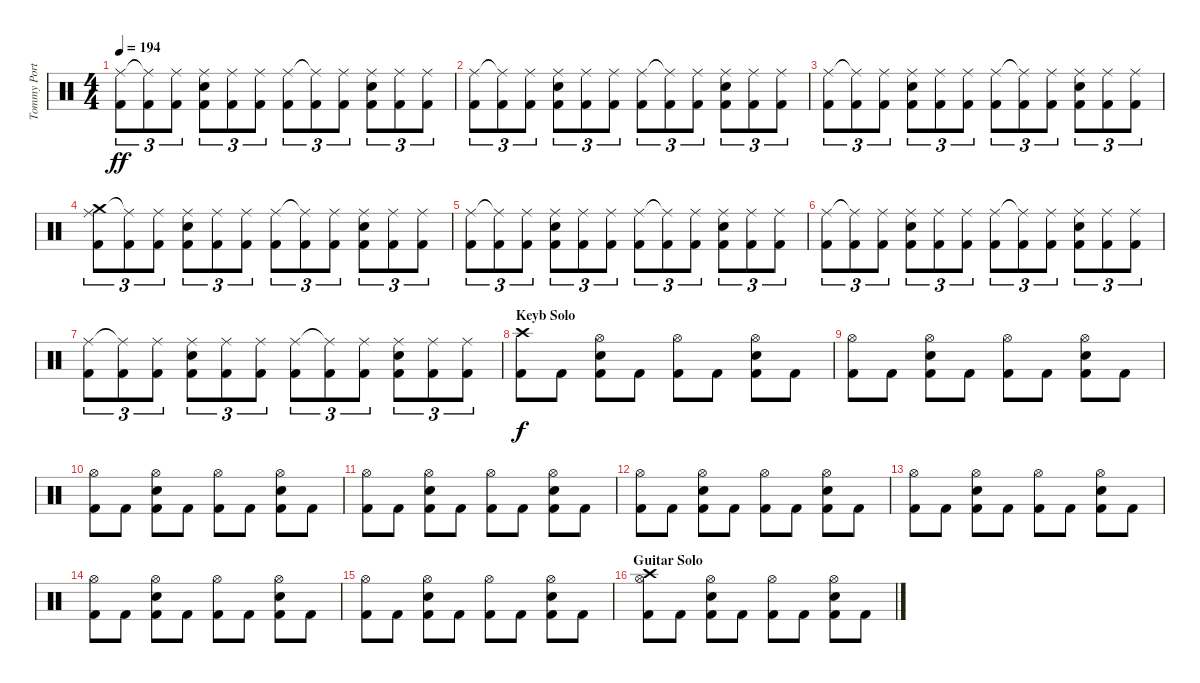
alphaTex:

\track ("Tommy Portino" "Tommy Port") {instrument percussion}
\staff {score}
\articulation defaults
\ts (4 4)
\tempo 194
\clef neutral
\ks c
("Ride (middle)" "Kick (hit) 2").8{tu (3 2) dy ff} ("Ride (middle)"{t} "Kick (hit) 2").8{tu (3 2)} ("Ride (middle)" "Kick (hit) 2").8{tu (3 2)} ("Ride (middle)" "Snare (hit) 2" "Kick (hit) 2").8{tu (3 2)} ("Ride (middle)" "Kick (hit) 2").8{tu (3 2)} ("Ride (middle)" "Kick (hit) 2").8{tu (3 2)} ("Ride (middle)" "Kick (hit) 2").8{tu (3 2)} ("Ride (middle)"{t} "Kick (hit) 2").8{tu (3 2)} ("Ride (middle)" "Kick (hit) 2").8{tu (3 2)} ("Ride (middle)" "Snare (hit) 2" "Kick (hit) 2").8{tu (3 2)} ("Ride (middle)" "Kick (hit) 2").8{tu (3 2)} ("Ride (middle)" "Kick (hit) 2").8{tu (3 2)} |
("Ride (middle)" "Kick (hit) 2").8{tu (3 2)} ("Ride (middle)"{t} "Kick (hit) 2").8{tu (3 2)} ("Ride (middle)" "Kick (hit) 2").8{tu (3 2)} ("Ride (middle)" "Snare (hit) 2" "Kick (hit) 2").8{tu (3 2)} ("Ride (middle)" "Kick (hit) 2").8{tu (3 2)} ("Ride (middle)" "Kick (hit) 2").8{tu (3 2)} ("Ride (middle)" "Kick (hit) 2").8{tu (3 2)} ("Ride (middle)"{t} "Kick (hit) 2").8{tu (3 2)} ("Ride (middle)" "Kick (hit) 2").8{tu (3 2)} ("Ride (middle)" "Snare (hit) 2" "Kick (hit) 2").8{tu (3 2)} ("Ride (middle)" "Kick (hit) 2").8{tu (3 2)} ("Ride (middle)" "Kick (hit) 2").8{tu (3 2)} |
("Ride (middle)" "Kick (hit) 2").8{tu (3 2)} ("Ride (middle)"{t} "Kick (hit) 2").8{tu (3 2)} ("Ride (middle)" "Kick (hit) 2").8{tu (3 2)} ("Ride (middle)" "Snare (hit) 2" "Kick (hit) 2").8{tu (3 2)} ("Ride (middle)" "Kick (hit) 2").8{tu (3 2)} ("Ride (middle)" "Kick (hit) 2").8{tu (3 2)} ("Ride (middle)" "Kick (hit) 2").8{tu (3 2)} ("Ride (middle)"{t} "Kick (hit) 2").8{tu (3 2)} ("Ride (middle)" "Kick (hit) 2").8{tu (3 2)} ("Ride (middle)" "Snare (hit) 2" "Kick (hit) 2").8{tu (3 2)} ("Ride (middle)" "Kick (hit) 2").8{tu (3 2)} ("Ride (middle)" "Kick (hit) 2").8{tu (3 2)} |
("Crash medium (hit)" "Ride (middle)" "Kick (hit) 2").8{tu (3 2)} ("Ride (middle)"{t} "Kick (hit) 2").8{tu (3 2)} ("Ride (middle)" "Kick (hit) 2").8{tu (3 2)} ("Ride (middle)" "Snare (hit) 2" "Kick (hit) 2").8{tu (3 2)} ("Ride (middle)" "Kick (hit) 2").8{tu (3 2)} ("Ride (middle)" "Kick (hit) 2").8{tu (3 2)} ("Ride (middle)" "Kick (hit) 2").8{tu (3 2)} ("Ride (middle)"{t} "Kick (hit) 2").8{tu (3 2)} ("Ride (middle)" "Kick (hit) 2").8{tu (3 2)} ("Ride (middle)" "Snare (hit) 2" "Kick (hit) 2").8{tu (3 2)} ("Ride (middle)" "Kick (hit) 2").8{tu (3 2)} ("Ride (middle)" "Kick (hit) 2").8{tu (3 2)} |
("Ride (middle)" "Kick (hit) 2").8{tu (3 2)} ("Ride (middle)"{t} "Kick (hit) 2").8{tu (3 2)} ("Ride (middle)" "Kick (hit) 2").8{tu (3 2)} ("Ride (middle)" "Snare (hit) 2" "Kick (hit) 2").8{tu (3 2)} ("Ride (middle)" "Kick (hit) 2").8{tu (3 2)} ("Ride (middle)" "Kick (hit) 2").8{tu (3 2)} ("Ride (middle)" "Kick (hit) 2").8{tu (3 2)} ("Ride (middle)"{t} "Kick (hit) 2").8{tu (3 2)} ("Ride (middle)" "Kick (hit) 2").8{tu (3 2)} ("Ride (middle)" "Snare (hit) 2" "Kick (hit) 2").8{tu (3 2)} ("Ride (middle)" "Kick (hit) 2").8{tu (3 2)} ("Ride (middle)" "Kick (hit) 2").8{tu (3 2)} |
("Ride (middle)" "Kick (hit) 2").8{tu (3 2)} ("Ride (middle)"{t} "Kick (hit) 2").8{tu (3 2)} ("Ride (middle)" "Kick (hit) 2").8{tu (3 2)} ("Ride (middle)" "Snare (hit) 2" "Kick (hit) 2").8{tu (3 2)} ("Ride (middle)" "Kick (hit) 2").8{tu (3 2)} ("Ride (middle)" "Kick (hit) 2").8{tu (3 2)} ("Ride (middle)" "Kick (hit) 2").8{tu (3 2)} ("Ride (middle)"{t} "Kick (hit) 2").8{tu (3 2)} ("Ride (middle)" "Kick (hit) 2").8{tu (3 2)} ("Ride (middle)" "Snare (hit) 2" "Kick (hit) 2").8{tu (3 2)} ("Ride (middle)" "Kick (hit) 2").8{tu (3 2)} ("Ride (middle)" "Kick (hit) 2").8{tu (3 2)} |
("Ride (middle)" "Kick (hit) 2").8{tu (3 2)} ("Ride (middle)"{t} "Kick (hit) 2").8{tu (3 2)} ("Ride (middle)" "Kick (hit) 2").8{tu (3 2)} ("Ride (middle)" "Snare (hit) 2" "Kick (hit) 2").8{tu (3 2)} ("Ride (middle)" "Kick (hit) 2").8{tu (3 2)} ("Ride (middle)" "Kick (hit) 2").8{tu (3 2)} ("Ride (middle)" "Kick (hit) 2").8{tu (3 2)} ("Ride (middle)"{t} "Kick (hit) 2").8{tu (3 2)} ("Ride (middle)" "Kick (hit) 2").8{tu (3 2)} ("Ride (middle)" "Snare (hit) 2" "Kick (hit) 2").8{tu (3 2)} ("Ride (middle)" "Kick (hit) 2").8{tu (3 2)} ("Ride (middle)" "Kick (hit) 2").8{tu (3 2)} |
\section ("" "Keyb Solo")
("Crash high (hit)" "Kick (hit) 2").8{dy f} "Kick (hit) 2".8 ("Hi-Hat (open)" "Snare (hit) 2" "Kick (hit) 2").8 "Kick (hit) 2".8 ("Hi-Hat (open)" "Kick (hit) 2").8 "Kick (hit) 2".8 ("Hi-Hat (open)" "Snare (hit) 2" "Kick (hit) 2").8 "Kick (hit) 2".8 |
("Hi-Hat (open)" "Kick (hit) 2").8 "Kick (hit) 2".8 ("Hi-Hat (open)" "Snare (hit) 2" "Kick (hit) 2").8 "Kick (hit) 2".8 ("Hi-Hat (open)" "Kick (hit) 2").8 "Kick (hit) 2".8 ("Hi-Hat (open)" "Snare (hit) 2" "Kick (hit) 2").8 "Kick (hit) 2".8 |
("Hi-Hat (open)" "Kick (hit) 2").8 "Kick (hit) 2".8 ("Hi-Hat (open)" "Snare (hit) 2" "Kick (hit) 2").8 "Kick (hit) 2".8 ("Hi-Hat (open)" "Kick (hit) 2").8 "Kick (hit) 2".8 ("Hi-Hat (open)" "Snare (hit) 2" "Kick (hit) 2").8 "Kick (hit) 2".8 |
("Hi-Hat (open)" "Kick (hit) 2").8 "Kick (hit) 2".8 ("Hi-Hat (open)" "Snare (hit) 2" "Kick (hit) 2").8 "Kick (hit) 2".8 ("Hi-Hat (open)" "Kick (hit) 2").8 "Kick (hit) 2".8 ("Hi-Hat (open)" "Snare (hit) 2" "Kick (hit) 2").8 "Kick (hit) 2".8 |
("Hi-Hat (open)" "Kick (hit) 2").8 "Kick (hit) 2".8 ("Hi-Hat (open)" "Snare (hit) 2" "Kick (hit) 2").8 "Kick (hit) 2".8 ("Hi-Hat (open)" "Kick (hit) 2").8 "Kick (hit) 2".8 ("Hi-Hat (open)" "Snare (hit) 2" "Kick (hit) 2").8 "Kick (hit) 2".8 |
("Hi-Hat (open)" "Kick (hit) 2").8 "Kick (hit) 2".8 ("Hi-Hat (open)" "Snare (hit) 2" "Kick (hit) 2").8 "Kick (hit) 2".8 ("Hi-Hat (open)" "Kick (hit) 2").8 "Kick (hit) 2".8 ("Hi-Hat (open)" "Snare (hit) 2" "Kick (hit) 2").8 "Kick (hit) 2".8 |
("Hi-Hat (open)" "Kick (hit) 2").8 "Kick (hit) 2".8 ("Hi-Hat (open)" "Snare (hit) 2" "Kick (hit) 2").8 "Kick (hit) 2".8 ("Hi-Hat (open)" "Kick (hit) 2").8 "Kick (hit) 2".8 ("Hi-Hat (open)" "Snare (hit) 2" "Kick (hit) 2").8 "Kick (hit) 2".8 |
("Hi-Hat (open)" "Kick (hit) 2").8 "Kick (hit) 2".8 ("Hi-Hat (open)" "Snare (hit) 2" "Kick (hit) 2").8 "Kick (hit) 2".8 ("Hi-Hat (open)" "Kick (hit) 2").8 "Kick (hit) 2".8 ("Hi-Hat (open)" "Snare (hit) 2" "Kick (hit) 2").8 "Kick (hit) 2".8 |
\section ("" "Guitar Solo")
("Crash high (hit)" "Hi-Hat (open)" "Kick (hit) 2").8 "Kick (hit) 2".8 ("Hi-Hat (open)" "Snare (hit) 2" "Kick (hit) 2").8 "Kick (hit) 2".8 ("Hi-Hat (open)" "Kick (hit) 2").8 "Kick (hit) 2".8 ("Hi-Hat (open)" "Snare (hit) 2" "Kick (hit) 2").8 "Kick (hit) 2".8
